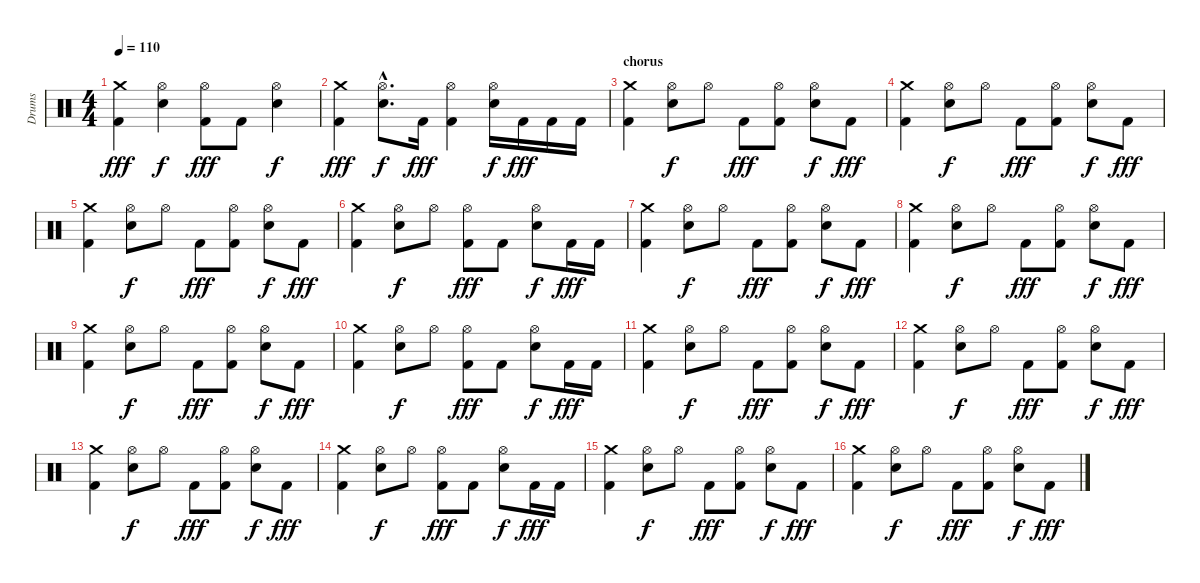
\track ("Drums" "Drums") {instrument percussion}
\staff {score}
\articulation defaults
\ts (4 4)
\tempo 110
\clef neutral
\ks c
("Crash medium (hit)" "Kick (hit) 2").4{dy fff} ("Hi-Hat (open)" "Electric Snare (hit)").4{dy f} ("Hi-Hat (open)" "Kick (hit) 2").8{dy fff} "Kick (hit) 2".8 ("Hi-Hat (open)" "Electric Snare (hit)").4{dy f} |
("Crash medium (hit)" "Kick (hit) 2").4{dy fff} ("Hi-Hat (open)"{hac} "Electric Snare (hit)"{hac}).8{d dy f} "Kick (hit) 2".16{dy fff} ("Hi-Hat (open)" "Kick (hit) 2").4 ("Hi-Hat (open)" "Electric Snare (hit)").16{dy f} "Kick (hit) 2".16{dy fff} "Kick (hit) 2".16 "Kick (hit) 2".16 |
\section ("" "chorus")
("Crash medium (hit)" "Kick (hit) 2").4 ("Hi-Hat (open)" "Electric Snare (hit)").8{dy f} "Hi-Hat (open)".8 "Kick (hit) 2".8{dy fff} ("Hi-Hat (open)" "Kick (hit) 2").8 ("Hi-Hat (open)" "Electric Snare (hit)").8{dy f} "Kick (hit) 2".8{dy fff} |
("Crash medium (hit)" "Kick (hit) 2").4 ("Hi-Hat (open)" "Electric Snare (hit)").8{dy f} "Hi-Hat (open)".8 "Kick (hit) 2".8{dy fff} ("Hi-Hat (open)" "Kick (hit) 2").8 ("Hi-Hat (open)" "Electric Snare (hit)").8{dy f} "Kick (hit) 2".8{dy fff} |
("Crash medium (hit)" "Kick (hit) 2").4 ("Hi-Hat (open)" "Electric Snare (hit)").8{dy f} "Hi-Hat (open)".8 "Kick (hit) 2".8{dy fff} ("Hi-Hat (open)" "Kick (hit) 2").8 ("Hi-Hat (open)" "Electric Snare (hit)").8{dy f} "Kick (hit) 2".8{dy fff} |
("Crash medium (hit)" "Kick (hit) 2").4 ("Hi-Hat (open)" "Electric Snare (hit)").8{dy f} "Hi-Hat (open)".8 ("Hi-Hat (open)" "Kick (hit) 2").8{dy fff} "Kick (hit) 2".8 ("Hi-Hat (open)" "Electric Snare (hit)").8{dy f} "Kick (hit) 2".16{dy fff} "Kick (hit) 2".16 |
("Crash medium (hit)" "Kick (hit) 2").4 ("Hi-Hat (open)" "Electric Snare (hit)").8{dy f} "Hi-Hat (open)".8 "Kick (hit) 2".8{dy fff} ("Hi-Hat (open)" "Kick (hit) 2").8 ("Hi-Hat (open)" "Electric Snare (hit)").8{dy f} "Kick (hit) 2".8{dy fff} |
("Crash medium (hit)" "Kick (hit) 2").4 ("Hi-Hat (open)" "Electric Snare (hit)").8{dy f} "Hi-Hat (open)".8 "Kick (hit) 2".8{dy fff} ("Hi-Hat (open)" "Kick (hit) 2").8 ("Hi-Hat (open)" "Electric Snare (hit)").8{dy f} "Kick (hit) 2".8{dy fff} |
("Crash medium (hit)" "Kick (hit) 2").4 ("Hi-Hat (open)" "Electric Snare (hit)").8{dy f} "Hi-Hat (open)".8 "Kick (hit) 2".8{dy fff} ("Hi-Hat (open)" "Kick (hit) 2").8 ("Hi-Hat (open)" "Electric Snare (hit)").8{dy f} "Kick (hit) 2".8{dy fff} |
("Crash medium (hit)" "Kick (hit) 2").4 ("Hi-Hat (open)" "Electric Snare (hit)").8{dy f} "Hi-Hat (open)".8 ("Hi-Hat (open)" "Kick (hit) 2").8{dy fff} "Kick (hit) 2".8 ("Hi-Hat (open)" "Electric Snare (hit)").8{dy f} "Kick (hit) 2".16{dy fff} "Kick (hit) 2".16 |
("Crash medium (hit)" "Kick (hit) 2").4 ("Hi-Hat (open)" "Electric Snare (hit)").8{dy f} "Hi-Hat (open)".8 "Kick (hit) 2".8{dy fff} ("Hi-Hat (open)" "Kick (hit) 2").8 ("Hi-Hat (open)" "Electric Snare (hit)").8{dy f} "Kick (hit) 2".8{dy fff} |
("Crash medium (hit)" "Kick (hit) 2").4 ("Hi-Hat (open)" "Electric Snare (hit)").8{dy f} "Hi-Hat (open)".8 "Kick (hit) 2".8{dy fff} ("Hi-Hat (open)" "Kick (hit) 2").8 ("Hi-Hat (open)" "Electric Snare (hit)").8{dy f} "Kick (hit) 2".8{dy fff} |
("Crash medium (hit)" "Kick (hit) 2").4 ("Hi-Hat (open)" "Electric Snare (hit)").8{dy f} "Hi-Hat (open)".8 "Kick (hit) 2".8{dy fff} ("Hi-Hat (open)" "Kick (hit) 2").8 ("Hi-Hat (open)" "Electric Snare (hit)").8{dy f} "Kick (hit) 2".8{dy fff} |
("Crash medium (hit)" "Kick (hit) 2").4 ("Hi-Hat (open)" "Electric Snare (hit)").8{dy f} "Hi-Hat (open)".8 ("Hi-Hat (open)" "Kick (hit) 2").8{dy fff} "Kick (hit) 2".8 ("Hi-Hat (open)" "Electric Snare (hit)").8{dy f} "Kick (hit) 2".16{dy fff} "Kick (hit) 2".16 |
("Crash medium (hit)" "Kick (hit) 2").4 ("Hi-Hat (open)" "Electric Snare (hit)").8{dy f} "Hi-Hat (open)".8 "Kick (hit) 2".8{dy fff} ("Hi-Hat (open)" "Kick (hit) 2").8 ("Hi-Hat (open)" "Electric Snare (hit)").8{dy f} "Kick (hit) 2".8{dy fff} |
("Crash medium (hit)" "Kick (hit) 2").4 ("Hi-Hat (open)" "Electric Snare (hit)").8{dy f} "Hi-Hat (open)".8 "Kick (hit) 2".8{dy fff} ("Hi-Hat (open)" "Kick (hit) 2").8 ("Hi-Hat (open)" "Electric Snare (hit)").8{dy f} "Kick (hit) 2".8{dy fff}
